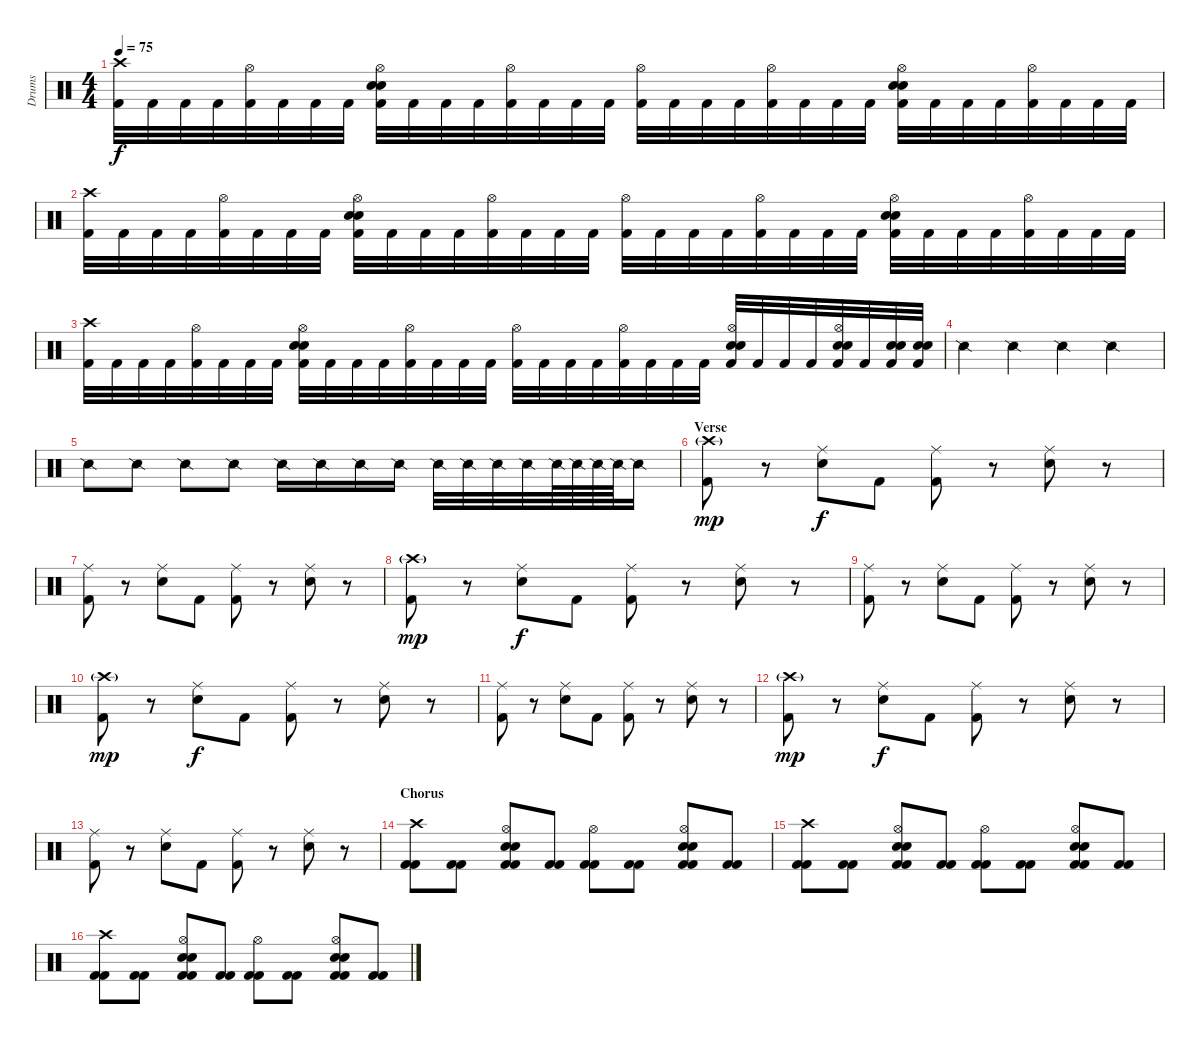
\track ("Drums" "Drums") {instrument percussion}
\staff {score}
\articulation defaults
\ts (4 4)
\tempo 75
\clef neutral
\ks c
("Crash high (hit)" "Kick (hit) 2").32{dy f} "Kick (hit) 2".32 "Kick (hit) 2".32 "Kick (hit) 2".32 ("Hi-Hat (open)" "Kick (hit) 2").32 "Kick (hit) 2".32 "Kick (hit) 2".32 "Kick (hit) 2".32 ("Hi-Hat (open)" "Snare (hit) 2" "Snare (hit) 2" "Kick (hit) 2").32 "Kick (hit) 2".32 "Kick (hit) 2".32 "Kick (hit) 2".32 ("Hi-Hat (open)" "Kick (hit) 2").32 "Kick (hit) 2".32 "Kick (hit) 2".32 "Kick (hit) 2".32 ("Hi-Hat (open)" "Kick (hit) 2").32 "Kick (hit) 2".32 "Kick (hit) 2".32 "Kick (hit) 2".32 ("Hi-Hat (open)" "Kick (hit) 2").32 "Kick (hit) 2".32 "Kick (hit) 2".32 "Kick (hit) 2".32 ("Hi-Hat (open)" "Snare (hit) 2" "Snare (hit) 2" "Kick (hit) 2").32 "Kick (hit) 2".32 "Kick (hit) 2".32 "Kick (hit) 2".32 ("Hi-Hat (open)" "Kick (hit) 2").32 "Kick (hit) 2".32 "Kick (hit) 2".32 "Kick (hit) 2".32 |
("Crash high (hit)" "Kick (hit) 2").32 "Kick (hit) 2".32 "Kick (hit) 2".32 "Kick (hit) 2".32 ("Hi-Hat (open)" "Kick (hit) 2").32 "Kick (hit) 2".32 "Kick (hit) 2".32 "Kick (hit) 2".32 ("Hi-Hat (open)" "Snare (hit) 2" "Snare (hit) 2" "Kick (hit) 2").32 "Kick (hit) 2".32 "Kick (hit) 2".32 "Kick (hit) 2".32 ("Hi-Hat (open)" "Kick (hit) 2").32 "Kick (hit) 2".32 "Kick (hit) 2".32 "Kick (hit) 2".32 ("Hi-Hat (open)" "Kick (hit) 2").32 "Kick (hit) 2".32 "Kick (hit) 2".32 "Kick (hit) 2".32 ("Hi-Hat (open)" "Kick (hit) 2").32 "Kick (hit) 2".32 "Kick (hit) 2".32 "Kick (hit) 2".32 ("Hi-Hat (open)" "Snare (hit) 2" "Snare (hit) 2" "Kick (hit) 2").32 "Kick (hit) 2".32 "Kick (hit) 2".32 "Kick (hit) 2".32 ("Hi-Hat (open)" "Kick (hit) 2").32 "Kick (hit) 2".32 "Kick (hit) 2".32 "Kick (hit) 2".32 |
("Crash high (hit)" "Kick (hit) 2").32 "Kick (hit) 2".32 "Kick (hit) 2".32 "Kick (hit) 2".32 ("Hi-Hat (open)" "Kick (hit) 2").32 "Kick (hit) 2".32 "Kick (hit) 2".32 "Kick (hit) 2".32 ("Hi-Hat (open)" "Snare (hit) 2" "Snare (hit) 2" "Kick (hit) 2").32 "Kick (hit) 2".32 "Kick (hit) 2".32 "Kick (hit) 2".32 ("Hi-Hat (open)" "Kick (hit) 2").32 "Kick (hit) 2".32 "Kick (hit) 2".32 "Kick (hit) 2".32 ("Hi-Hat (open)" "Kick (hit) 2").32 "Kick (hit) 2".32 "Kick (hit) 2".32 "Kick (hit) 2".32 ("Hi-Hat (open)" "Kick (hit) 2").32 "Kick (hit) 2".32 "Kick (hit) 2".32 "Kick (hit) 2".32 ("Hi-Hat (open)" "Snare (hit) 2" "Snare (hit) 2" "Kick (hit) 2").32 "Kick (hit) 2".32 "Kick (hit) 2".32 "Kick (hit) 2".32 ("Hi-Hat (open)" "Snare (hit) 2" "Snare (hit) 2" "Kick (hit) 2").32 "Kick (hit) 2".32 ("Snare (hit) 2" "Snare (hit) 2" "Kick (hit) 2").32 ("Snare (hit) 2" "Snare (hit) 2" "Kick (hit) 2").32 |
"Snare (side stick) 2".4 "Snare (side stick) 2".4 "Snare (side stick) 2".4 "Snare (side stick) 2".4 |
"Snare (side stick) 2".8 "Snare (side stick) 2".8 "Snare (side stick) 2".8 "Snare (side stick) 2".8 "Snare (side stick) 2".16 "Snare (side stick) 2".16 "Snare (side stick) 2".16 "Snare (side stick) 2".16 "Snare (side stick) 2".32 "Snare (side stick) 2".32 "Snare (side stick) 2".32 "Snare (side stick) 2".32 "Snare (side stick) 2".64 "Snare (side stick) 2".64 "Snare (side stick) 2".64 "Snare (side stick) 2".64 "Snare (side stick) 2".16 |
\section ("" "Verse")
("Crash high (hit)"{g} "Kick (hit) 2").8{dy mp} r.8 ("Ride (middle)" "Snare (hit) 2").8{dy f} "Kick (hit) 2".8 ("Ride (middle)" "Kick (hit) 2").8 r.8 ("Ride (middle)" "Snare (hit) 2").8 r.8 |
("Ride (middle)" "Kick (hit) 2").8 r.8 ("Ride (middle)" "Snare (hit) 2").8 "Kick (hit) 2".8 ("Ride (middle)" "Kick (hit) 2").8 r.8 ("Ride (middle)" "Snare (hit) 2").8 r.8 |
("Crash high (hit)"{g} "Kick (hit) 2").8{dy mp} r.8 ("Ride (middle)" "Snare (hit) 2").8{dy f} "Kick (hit) 2".8 ("Ride (middle)" "Kick (hit) 2").8 r.8 ("Ride (middle)" "Snare (hit) 2").8 r.8 |
("Ride (middle)" "Kick (hit) 2").8 r.8 ("Ride (middle)" "Snare (hit) 2").8 "Kick (hit) 2".8 ("Ride (middle)" "Kick (hit) 2").8 r.8 ("Ride (middle)" "Snare (hit) 2").8 r.8 |
("Crash high (hit)"{g} "Kick (hit) 2").8{dy mp} r.8 ("Ride (middle)" "Snare (hit) 2").8{dy f} "Kick (hit) 2".8 ("Ride (middle)" "Kick (hit) 2").8 r.8 ("Ride (middle)" "Snare (hit) 2").8 r.8 |
("Ride (middle)" "Kick (hit) 2").8 r.8 ("Ride (middle)" "Snare (hit) 2").8 "Kick (hit) 2".8 ("Ride (middle)" "Kick (hit) 2").8 r.8 ("Ride (middle)" "Snare (hit) 2").8 r.8 |
("Crash high (hit)"{g} "Kick (hit) 2").8{dy mp} r.8 ("Ride (middle)" "Snare (hit) 2").8{dy f} "Kick (hit) 2".8 ("Ride (middle)" "Kick (hit) 2").8 r.8 ("Ride (middle)" "Snare (hit) 2").8 r.8 |
("Ride (middle)" "Kick (hit) 2").8 r.8 ("Ride (middle)" "Snare (hit) 2").8 "Kick (hit) 2".8 ("Ride (middle)" "Kick (hit) 2").8 r.8 ("Ride (middle)" "Snare (hit) 2").8 r.8 |
\section ("" "Chorus")
("Crash high (hit)" "Kick (hit) 2" "Kick (hit) 2").8 ("Kick (hit) 2" "Kick (hit) 2").8 ("Hi-Hat (open)" "Snare (hit) 2" "Snare (hit) 2" "Kick (hit) 2" "Kick (hit) 2").8 ("Kick (hit) 2" "Kick (hit) 2").8 ("Hi-Hat (open)" "Kick (hit) 2" "Kick (hit) 2").8 ("Kick (hit) 2" "Kick (hit) 2").8 ("Hi-Hat (open)" "Snare (hit) 2" "Snare (hit) 2" "Kick (hit) 2" "Kick (hit) 2").8 ("Kick (hit) 2" "Kick (hit) 2").8 |
("Crash high (hit)" "Kick (hit) 2" "Kick (hit) 2").8 ("Kick (hit) 2" "Kick (hit) 2").8 ("Hi-Hat (open)" "Snare (hit) 2" "Snare (hit) 2" "Kick (hit) 2" "Kick (hit) 2").8 ("Kick (hit) 2" "Kick (hit) 2").8 ("Hi-Hat (open)" "Kick (hit) 2" "Kick (hit) 2").8 ("Kick (hit) 2" "Kick (hit) 2").8 ("Hi-Hat (open)" "Snare (hit) 2" "Snare (hit) 2" "Kick (hit) 2" "Kick (hit) 2").8 ("Kick (hit) 2" "Kick (hit) 2").8 |
("Crash high (hit)" "Kick (hit) 2" "Kick (hit) 2").8 ("Kick (hit) 2" "Kick (hit) 2").8 ("Hi-Hat (open)" "Snare (hit) 2" "Snare (hit) 2" "Kick (hit) 2" "Kick (hit) 2").8 ("Kick (hit) 2" "Kick (hit) 2").8 ("Hi-Hat (open)" "Kick (hit) 2" "Kick (hit) 2").8 ("Kick (hit) 2" "Kick (hit) 2").8 ("Hi-Hat (open)" "Snare (hit) 2" "Snare (hit) 2" "Kick (hit) 2" "Kick (hit) 2").8 ("Kick (hit) 2" "Kick (hit) 2").8
